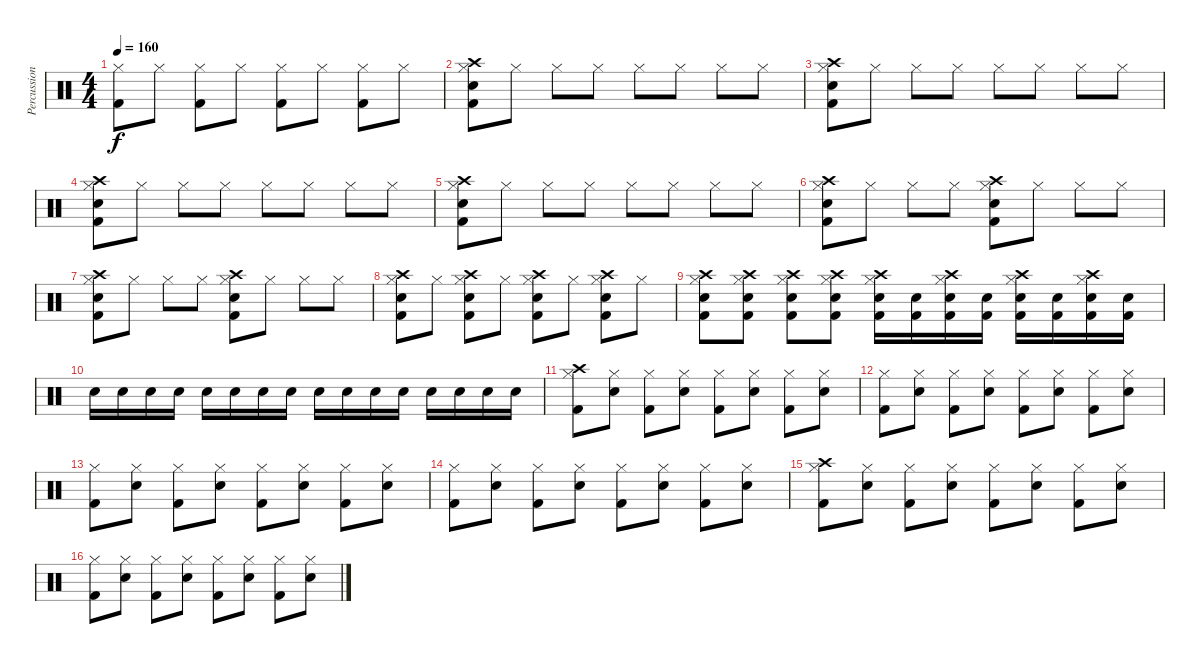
\track ("Percussion" "Percussion") {instrument percussion}
\staff {score}
\articulation defaults
\ts (4 4)
\tempo 160
\clef neutral
\ks c
("Hi-Hat (closed)" "Kick (hit) 2").8{dy f} "Hi-Hat (closed)".8 ("Hi-Hat (closed)" "Kick (hit) 2").8 "Hi-Hat (closed)".8 ("Hi-Hat (closed)" "Kick (hit) 2").8 "Hi-Hat (closed)".8 ("Hi-Hat (closed)" "Kick (hit) 2").8 "Hi-Hat (closed)".8 |
("Hi-Hat (closed)" "Electric Snare (hit)" "Kick (hit) 2" "Crash high (hit)").8 "Hi-Hat (closed)".8 "Hi-Hat (closed)".8 "Hi-Hat (closed)".8 "Hi-Hat (closed)".8 "Hi-Hat (closed)".8 "Hi-Hat (closed)".8 "Hi-Hat (closed)".8 |
("Hi-Hat (closed)" "Electric Snare (hit)" "Kick (hit) 2" "Crash high (hit)").8 "Hi-Hat (closed)".8 "Hi-Hat (closed)".8 "Hi-Hat (closed)".8 "Hi-Hat (closed)".8 "Hi-Hat (closed)".8 "Hi-Hat (closed)".8 "Hi-Hat (closed)".8 |
("Hi-Hat (closed)" "Electric Snare (hit)" "Kick (hit) 2" "Crash high (hit)").8 "Hi-Hat (closed)".8 "Hi-Hat (closed)".8 "Hi-Hat (closed)".8 "Hi-Hat (closed)".8 "Hi-Hat (closed)".8 "Hi-Hat (closed)".8 "Hi-Hat (closed)".8 |
("Hi-Hat (closed)" "Electric Snare (hit)" "Kick (hit) 2" "Crash high (hit)").8 "Hi-Hat (closed)".8 "Hi-Hat (closed)".8 "Hi-Hat (closed)".8 "Hi-Hat (closed)".8 "Hi-Hat (closed)".8 "Hi-Hat (closed)".8 "Hi-Hat (closed)".8 |
("Hi-Hat (closed)" "Electric Snare (hit)" "Kick (hit) 2" "Crash high (hit)").8 "Hi-Hat (closed)".8 "Hi-Hat (closed)".8 "Hi-Hat (closed)".8 ("Hi-Hat (closed)" "Electric Snare (hit)" "Kick (hit) 2" "Crash high (hit)").8 "Hi-Hat (closed)".8 "Hi-Hat (closed)".8 "Hi-Hat (closed)".8 |
("Hi-Hat (closed)" "Electric Snare (hit)" "Kick (hit) 2" "Crash high (hit)").8 "Hi-Hat (closed)".8 "Hi-Hat (closed)".8 "Hi-Hat (closed)".8 ("Hi-Hat (closed)" "Electric Snare (hit)" "Kick (hit) 2" "Crash high (hit)").8 "Hi-Hat (closed)".8 "Hi-Hat (closed)".8 "Hi-Hat (closed)".8 |
("Hi-Hat (closed)" "Electric Snare (hit)" "Kick (hit) 2" "Crash high (hit)").8 "Hi-Hat (closed)".8 ("Hi-Hat (closed)" "Electric Snare (hit)" "Kick (hit) 2" "Crash high (hit)").8 "Hi-Hat (closed)".8 ("Hi-Hat (closed)" "Electric Snare (hit)" "Kick (hit) 2" "Crash high (hit)").8 "Hi-Hat (closed)".8 ("Hi-Hat (closed)" "Electric Snare (hit)" "Kick (hit) 2" "Crash high (hit)").8 "Hi-Hat (closed)".8 |
("Hi-Hat (closed)" "Electric Snare (hit)" "Kick (hit) 2" "Crash high (hit)").8 ("Hi-Hat (closed)" "Electric Snare (hit)" "Kick (hit) 2" "Crash high (hit)").8 ("Hi-Hat (closed)" "Electric Snare (hit)" "Kick (hit) 2" "Crash high (hit)").8 ("Hi-Hat (closed)" "Electric Snare (hit)" "Kick (hit) 2" "Crash high (hit)").8 ("Hi-Hat (closed)" "Electric Snare (hit)" "Kick (hit) 2" "Crash high (hit)").16 ("Electric Snare (hit)" "Kick (hit) 2").16 ("Hi-Hat (closed)" "Electric Snare (hit)" "Kick (hit) 2" "Crash high (hit)").16 ("Electric Snare (hit)" "Kick (hit) 2").16 ("Hi-Hat (closed)" "Electric Snare (hit)" "Kick (hit) 2" "Crash high (hit)").16 ("Electric Snare (hit)" "Kick (hit) 2").16 ("Hi-Hat (closed)" "Electric Snare (hit)" "Kick (hit) 2" "Crash high (hit)").16 ("Electric Snare (hit)" "Kick (hit) 2").16 |
"Electric Snare (hit)".16 "Electric Snare (hit)".16 "Electric Snare (hit)".16 "Electric Snare (hit)".16 "Electric Snare (hit)".16 "Electric Snare (hit)".16 "Electric Snare (hit)".16 "Electric Snare (hit)".16 "Electric Snare (hit)".16 "Electric Snare (hit)".16 "Electric Snare (hit)".16 "Electric Snare (hit)".16 "Electric Snare (hit)".16 "Electric Snare (hit)".16 "Electric Snare (hit)".16 "Electric Snare (hit)".16 |
("Hi-Hat (closed)" "Crash high (hit)" "Kick (hit) 2").8 ("Hi-Hat (closed)" "Electric Snare (hit)").8 ("Hi-Hat (closed)" "Kick (hit) 2").8 ("Hi-Hat (closed)" "Electric Snare (hit)").8 ("Hi-Hat (closed)" "Kick (hit) 2").8 ("Hi-Hat (closed)" "Electric Snare (hit)").8 ("Hi-Hat (closed)" "Kick (hit) 2").8 ("Hi-Hat (closed)" "Electric Snare (hit)").8 |
("Hi-Hat (closed)" "Kick (hit) 2").8 ("Hi-Hat (closed)" "Electric Snare (hit)").8 ("Hi-Hat (closed)" "Kick (hit) 2").8 ("Hi-Hat (closed)" "Electric Snare (hit)").8 ("Hi-Hat (closed)" "Kick (hit) 2").8 ("Hi-Hat (closed)" "Electric Snare (hit)").8 ("Hi-Hat (closed)" "Kick (hit) 2").8 ("Hi-Hat (closed)" "Electric Snare (hit)").8 |
("Hi-Hat (closed)" "Kick (hit) 2").8 ("Hi-Hat (closed)" "Electric Snare (hit)").8 ("Hi-Hat (closed)" "Kick (hit) 2").8 ("Hi-Hat (closed)" "Electric Snare (hit)").8 ("Hi-Hat (closed)" "Kick (hit) 2").8 ("Hi-Hat (closed)" "Electric Snare (hit)").8 ("Hi-Hat (closed)" "Kick (hit) 2").8 ("Hi-Hat (closed)" "Electric Snare (hit)").8 |
("Hi-Hat (closed)" "Kick (hit) 2").8 ("Hi-Hat (closed)" "Electric Snare (hit)").8 ("Hi-Hat (closed)" "Kick (hit) 2").8 ("Hi-Hat (closed)" "Electric Snare (hit)").8 ("Hi-Hat (closed)" "Kick (hit) 2").8 ("Hi-Hat (closed)" "Electric Snare (hit)").8 ("Hi-Hat (closed)" "Kick (hit) 2").8 ("Hi-Hat (closed)" "Electric Snare (hit)").8 |
("Hi-Hat (closed)" "Crash high (hit)" "Kick (hit) 2").8 ("Hi-Hat (closed)" "Electric Snare (hit)").8 ("Hi-Hat (closed)" "Kick (hit) 2").8 ("Hi-Hat (closed)" "Electric Snare (hit)").8 ("Hi-Hat (closed)" "Kick (hit) 2").8 ("Hi-Hat (closed)" "Electric Snare (hit)").8 ("Hi-Hat (closed)" "Kick (hit) 2").8 ("Hi-Hat (closed)" "Electric Snare (hit)").8 |
("Hi-Hat (closed)" "Kick (hit) 2").8 ("Hi-Hat (closed)" "Electric Snare (hit)").8 ("Hi-Hat (closed)" "Kick (hit) 2").8 ("Hi-Hat (closed)" "Electric Snare (hit)").8 ("Hi-Hat (closed)" "Kick (hit) 2").8 ("Hi-Hat (closed)" "Electric Snare (hit)").8 ("Hi-Hat (closed)" "Kick (hit) 2").8 ("Hi-Hat (closed)" "Electric Snare (hit)").8
